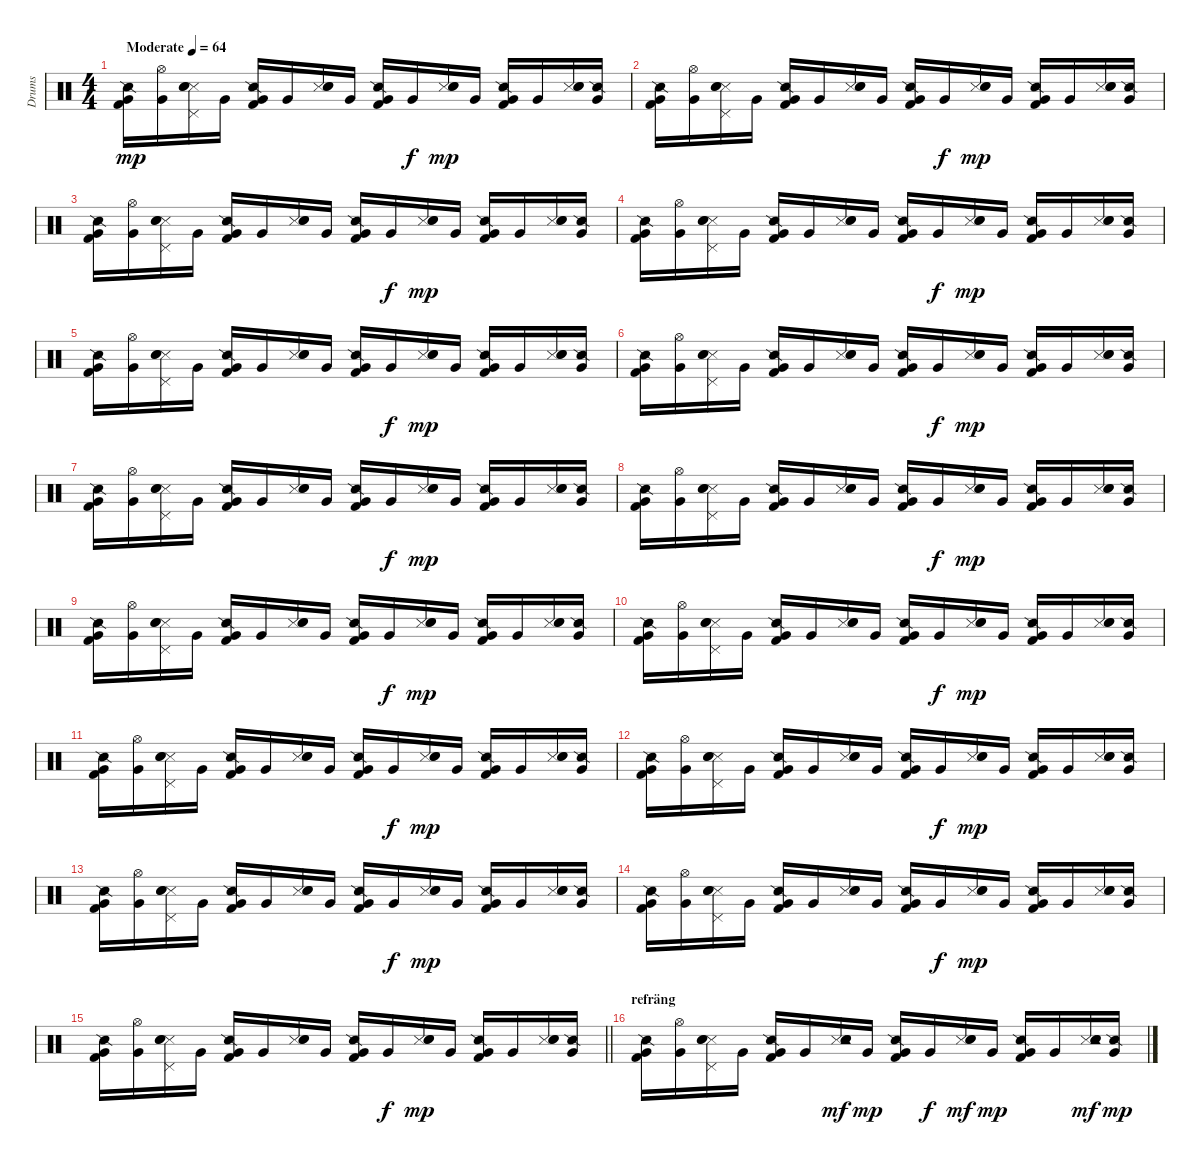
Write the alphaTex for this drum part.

\track ("Drums" "Drums") {instrument percussion}
\staff {score}
\articulation defaults
\ts (4 4)
\tempo (64 "Moderate")
\clef neutral
\ks c
("Snare (side stick) 2" "Very Low Tom (hit)" "Kick (hit) 2").16{dy mp} ("Hi-Hat (open)" "Very Low Tom (hit)").16 ("Metronome (hit)" "Snare (hit) 2" "Hand Clap (hit)" "Pedal Hi-Hat (hit)").16 "Very Low Tom (hit)".16 ("Snare (side stick) 2" "Very Low Tom (hit)" "Kick (hit) 2").16 "Very Low Tom (hit)".16 ("Metronome (hit)" "Hand Clap (hit)" "Snare (hit) 2").16 "Very Low Tom (hit)".16 ("Snare (side stick) 2" "Very Low Tom (hit)" "Kick (hit) 2").16 "Very Low Tom (hit)".16{dy f} ("Metronome (hit)" "Hand Clap (hit)" "Snare (hit) 2").16{dy mp} "Very Low Tom (hit)".16 ("Snare (side stick) 2" "Very Low Tom (hit)" "Kick (hit) 2").16 "Very Low Tom (hit)".16 ("Metronome (hit)" "Hand Clap (hit)" "Snare (hit) 2").16 ("Snare (side stick) 2" "Very Low Tom (hit)").16 |
("Snare (side stick) 2" "Very Low Tom (hit)" "Kick (hit) 2").16 ("Hi-Hat (open)" "Very Low Tom (hit)").16 ("Metronome (hit)" "Snare (hit) 2" "Hand Clap (hit)" "Pedal Hi-Hat (hit)").16 "Very Low Tom (hit)".16 ("Snare (side stick) 2" "Very Low Tom (hit)" "Kick (hit) 2").16 "Very Low Tom (hit)".16 ("Metronome (hit)" "Hand Clap (hit)" "Snare (hit) 2").16 "Very Low Tom (hit)".16 ("Snare (side stick) 2" "Very Low Tom (hit)" "Kick (hit) 2").16 "Very Low Tom (hit)".16{dy f} ("Metronome (hit)" "Hand Clap (hit)" "Snare (hit) 2").16{dy mp} "Very Low Tom (hit)".16 ("Snare (side stick) 2" "Very Low Tom (hit)" "Kick (hit) 2").16 "Very Low Tom (hit)".16 ("Metronome (hit)" "Hand Clap (hit)" "Snare (hit) 2").16 ("Snare (side stick) 2" "Very Low Tom (hit)").16 |
("Snare (side stick) 2" "Very Low Tom (hit)" "Kick (hit) 2").16 ("Hi-Hat (open)" "Very Low Tom (hit)").16 ("Metronome (hit)" "Snare (hit) 2" "Hand Clap (hit)" "Pedal Hi-Hat (hit)").16 "Very Low Tom (hit)".16 ("Snare (side stick) 2" "Very Low Tom (hit)" "Kick (hit) 2").16 "Very Low Tom (hit)".16 ("Metronome (hit)" "Hand Clap (hit)" "Snare (hit) 2").16 "Very Low Tom (hit)".16 ("Snare (side stick) 2" "Very Low Tom (hit)" "Kick (hit) 2").16 "Very Low Tom (hit)".16{dy f} ("Metronome (hit)" "Hand Clap (hit)" "Snare (hit) 2").16{dy mp} "Very Low Tom (hit)".16 ("Snare (side stick) 2" "Very Low Tom (hit)" "Kick (hit) 2").16 "Very Low Tom (hit)".16 ("Metronome (hit)" "Hand Clap (hit)" "Snare (hit) 2").16 ("Snare (side stick) 2" "Very Low Tom (hit)").16 |
("Snare (side stick) 2" "Very Low Tom (hit)" "Kick (hit) 2").16 ("Hi-Hat (open)" "Very Low Tom (hit)").16 ("Metronome (hit)" "Snare (hit) 2" "Hand Clap (hit)" "Pedal Hi-Hat (hit)").16 "Very Low Tom (hit)".16 ("Snare (side stick) 2" "Very Low Tom (hit)" "Kick (hit) 2").16 "Very Low Tom (hit)".16 ("Metronome (hit)" "Hand Clap (hit)" "Snare (hit) 2").16 "Very Low Tom (hit)".16 ("Snare (side stick) 2" "Very Low Tom (hit)" "Kick (hit) 2").16 "Very Low Tom (hit)".16{dy f} ("Metronome (hit)" "Hand Clap (hit)" "Snare (hit) 2").16{dy mp} "Very Low Tom (hit)".16 ("Snare (side stick) 2" "Very Low Tom (hit)" "Kick (hit) 2").16 "Very Low Tom (hit)".16 ("Metronome (hit)" "Hand Clap (hit)" "Snare (hit) 2").16 ("Snare (side stick) 2" "Very Low Tom (hit)").16 |
("Snare (side stick) 2" "Very Low Tom (hit)" "Kick (hit) 2").16 ("Hi-Hat (open)" "Very Low Tom (hit)").16 ("Metronome (hit)" "Snare (hit) 2" "Hand Clap (hit)" "Pedal Hi-Hat (hit)").16 "Very Low Tom (hit)".16 ("Snare (side stick) 2" "Very Low Tom (hit)" "Kick (hit) 2").16 "Very Low Tom (hit)".16 ("Metronome (hit)" "Hand Clap (hit)" "Snare (hit) 2").16 "Very Low Tom (hit)".16 ("Snare (side stick) 2" "Very Low Tom (hit)" "Kick (hit) 2").16 "Very Low Tom (hit)".16{dy f} ("Metronome (hit)" "Hand Clap (hit)" "Snare (hit) 2").16{dy mp} "Very Low Tom (hit)".16 ("Snare (side stick) 2" "Very Low Tom (hit)" "Kick (hit) 2").16 "Very Low Tom (hit)".16 ("Metronome (hit)" "Hand Clap (hit)" "Snare (hit) 2").16 ("Snare (side stick) 2" "Very Low Tom (hit)").16 |
("Snare (side stick) 2" "Very Low Tom (hit)" "Kick (hit) 2").16 ("Hi-Hat (open)" "Very Low Tom (hit)").16 ("Metronome (hit)" "Snare (hit) 2" "Hand Clap (hit)" "Pedal Hi-Hat (hit)").16 "Very Low Tom (hit)".16 ("Snare (side stick) 2" "Very Low Tom (hit)" "Kick (hit) 2").16 "Very Low Tom (hit)".16 ("Metronome (hit)" "Hand Clap (hit)" "Snare (hit) 2").16 "Very Low Tom (hit)".16 ("Snare (side stick) 2" "Very Low Tom (hit)" "Kick (hit) 2").16 "Very Low Tom (hit)".16{dy f} ("Metronome (hit)" "Hand Clap (hit)" "Snare (hit) 2").16{dy mp} "Very Low Tom (hit)".16 ("Snare (side stick) 2" "Very Low Tom (hit)" "Kick (hit) 2").16 "Very Low Tom (hit)".16 ("Metronome (hit)" "Hand Clap (hit)" "Snare (hit) 2").16 ("Snare (side stick) 2" "Very Low Tom (hit)").16 |
("Snare (side stick) 2" "Very Low Tom (hit)" "Kick (hit) 2").16 ("Hi-Hat (open)" "Very Low Tom (hit)").16 ("Metronome (hit)" "Snare (hit) 2" "Hand Clap (hit)" "Pedal Hi-Hat (hit)").16 "Very Low Tom (hit)".16 ("Snare (side stick) 2" "Very Low Tom (hit)" "Kick (hit) 2").16 "Very Low Tom (hit)".16 ("Metronome (hit)" "Hand Clap (hit)" "Snare (hit) 2").16 "Very Low Tom (hit)".16 ("Snare (side stick) 2" "Very Low Tom (hit)" "Kick (hit) 2").16 "Very Low Tom (hit)".16{dy f} ("Metronome (hit)" "Hand Clap (hit)" "Snare (hit) 2").16{dy mp} "Very Low Tom (hit)".16 ("Snare (side stick) 2" "Very Low Tom (hit)" "Kick (hit) 2").16 "Very Low Tom (hit)".16 ("Metronome (hit)" "Hand Clap (hit)" "Snare (hit) 2").16 ("Snare (side stick) 2" "Very Low Tom (hit)").16 |
("Snare (side stick) 2" "Very Low Tom (hit)" "Kick (hit) 2").16 ("Hi-Hat (open)" "Very Low Tom (hit)").16 ("Metronome (hit)" "Snare (hit) 2" "Hand Clap (hit)" "Pedal Hi-Hat (hit)").16 "Very Low Tom (hit)".16 ("Snare (side stick) 2" "Very Low Tom (hit)" "Kick (hit) 2").16 "Very Low Tom (hit)".16 ("Metronome (hit)" "Hand Clap (hit)" "Snare (hit) 2").16 "Very Low Tom (hit)".16 ("Snare (side stick) 2" "Very Low Tom (hit)" "Kick (hit) 2").16 "Very Low Tom (hit)".16{dy f} ("Metronome (hit)" "Hand Clap (hit)" "Snare (hit) 2").16{dy mp} "Very Low Tom (hit)".16 ("Snare (side stick) 2" "Very Low Tom (hit)" "Kick (hit) 2").16 "Very Low Tom (hit)".16 ("Metronome (hit)" "Hand Clap (hit)" "Snare (hit) 2").16 ("Snare (side stick) 2" "Very Low Tom (hit)").16 |
("Snare (side stick) 2" "Very Low Tom (hit)" "Kick (hit) 2").16 ("Hi-Hat (open)" "Very Low Tom (hit)").16 ("Metronome (hit)" "Snare (hit) 2" "Hand Clap (hit)" "Pedal Hi-Hat (hit)").16 "Very Low Tom (hit)".16 ("Snare (side stick) 2" "Very Low Tom (hit)" "Kick (hit) 2").16 "Very Low Tom (hit)".16 ("Metronome (hit)" "Hand Clap (hit)" "Snare (hit) 2").16 "Very Low Tom (hit)".16 ("Snare (side stick) 2" "Very Low Tom (hit)" "Kick (hit) 2").16 "Very Low Tom (hit)".16{dy f} ("Metronome (hit)" "Hand Clap (hit)" "Snare (hit) 2").16{dy mp} "Very Low Tom (hit)".16 ("Snare (side stick) 2" "Very Low Tom (hit)" "Kick (hit) 2").16 "Very Low Tom (hit)".16 ("Metronome (hit)" "Hand Clap (hit)" "Snare (hit) 2").16 ("Snare (side stick) 2" "Very Low Tom (hit)").16 |
("Snare (side stick) 2" "Very Low Tom (hit)" "Kick (hit) 2").16 ("Hi-Hat (open)" "Very Low Tom (hit)").16 ("Metronome (hit)" "Snare (hit) 2" "Hand Clap (hit)" "Pedal Hi-Hat (hit)").16 "Very Low Tom (hit)".16 ("Snare (side stick) 2" "Very Low Tom (hit)" "Kick (hit) 2").16 "Very Low Tom (hit)".16 ("Metronome (hit)" "Hand Clap (hit)" "Snare (hit) 2").16 "Very Low Tom (hit)".16 ("Snare (side stick) 2" "Very Low Tom (hit)" "Kick (hit) 2").16 "Very Low Tom (hit)".16{dy f} ("Metronome (hit)" "Hand Clap (hit)" "Snare (hit) 2").16{dy mp} "Very Low Tom (hit)".16 ("Snare (side stick) 2" "Very Low Tom (hit)" "Kick (hit) 2").16 "Very Low Tom (hit)".16 ("Metronome (hit)" "Hand Clap (hit)" "Snare (hit) 2").16 ("Snare (side stick) 2" "Very Low Tom (hit)").16 |
("Snare (side stick) 2" "Very Low Tom (hit)" "Kick (hit) 2").16 ("Hi-Hat (open)" "Very Low Tom (hit)").16 ("Metronome (hit)" "Snare (hit) 2" "Hand Clap (hit)" "Pedal Hi-Hat (hit)").16 "Very Low Tom (hit)".16 ("Snare (side stick) 2" "Very Low Tom (hit)" "Kick (hit) 2").16 "Very Low Tom (hit)".16 ("Metronome (hit)" "Hand Clap (hit)" "Snare (hit) 2").16 "Very Low Tom (hit)".16 ("Snare (side stick) 2" "Very Low Tom (hit)" "Kick (hit) 2").16 "Very Low Tom (hit)".16{dy f} ("Metronome (hit)" "Hand Clap (hit)" "Snare (hit) 2").16{dy mp} "Very Low Tom (hit)".16 ("Snare (side stick) 2" "Very Low Tom (hit)" "Kick (hit) 2").16 "Very Low Tom (hit)".16 ("Metronome (hit)" "Hand Clap (hit)" "Snare (hit) 2").16 ("Snare (side stick) 2" "Very Low Tom (hit)").16 |
("Snare (side stick) 2" "Very Low Tom (hit)" "Kick (hit) 2").16 ("Hi-Hat (open)" "Very Low Tom (hit)").16 ("Metronome (hit)" "Snare (hit) 2" "Hand Clap (hit)" "Pedal Hi-Hat (hit)").16 "Very Low Tom (hit)".16 ("Snare (side stick) 2" "Very Low Tom (hit)" "Kick (hit) 2").16 "Very Low Tom (hit)".16 ("Metronome (hit)" "Hand Clap (hit)" "Snare (hit) 2").16 "Very Low Tom (hit)".16 ("Snare (side stick) 2" "Very Low Tom (hit)" "Kick (hit) 2").16 "Very Low Tom (hit)".16{dy f} ("Metronome (hit)" "Hand Clap (hit)" "Snare (hit) 2").16{dy mp} "Very Low Tom (hit)".16 ("Snare (side stick) 2" "Very Low Tom (hit)" "Kick (hit) 2").16 "Very Low Tom (hit)".16 ("Metronome (hit)" "Hand Clap (hit)" "Snare (hit) 2").16 ("Snare (side stick) 2" "Very Low Tom (hit)").16 |
("Snare (side stick) 2" "Very Low Tom (hit)" "Kick (hit) 2").16 ("Hi-Hat (open)" "Very Low Tom (hit)").16 ("Metronome (hit)" "Snare (hit) 2" "Hand Clap (hit)" "Pedal Hi-Hat (hit)").16 "Very Low Tom (hit)".16 ("Snare (side stick) 2" "Very Low Tom (hit)" "Kick (hit) 2").16 "Very Low Tom (hit)".16 ("Metronome (hit)" "Hand Clap (hit)" "Snare (hit) 2").16 "Very Low Tom (hit)".16 ("Snare (side stick) 2" "Very Low Tom (hit)" "Kick (hit) 2").16 "Very Low Tom (hit)".16{dy f} ("Metronome (hit)" "Hand Clap (hit)" "Snare (hit) 2").16{dy mp} "Very Low Tom (hit)".16 ("Snare (side stick) 2" "Very Low Tom (hit)" "Kick (hit) 2").16 "Very Low Tom (hit)".16 ("Metronome (hit)" "Hand Clap (hit)" "Snare (hit) 2").16 ("Snare (side stick) 2" "Very Low Tom (hit)").16 |
("Snare (side stick) 2" "Very Low Tom (hit)" "Kick (hit) 2").16 ("Hi-Hat (open)" "Very Low Tom (hit)").16 ("Metronome (hit)" "Snare (hit) 2" "Hand Clap (hit)" "Pedal Hi-Hat (hit)").16 "Very Low Tom (hit)".16 ("Snare (side stick) 2" "Very Low Tom (hit)" "Kick (hit) 2").16 "Very Low Tom (hit)".16 ("Metronome (hit)" "Hand Clap (hit)" "Snare (hit) 2").16 "Very Low Tom (hit)".16 ("Snare (side stick) 2" "Very Low Tom (hit)" "Kick (hit) 2").16 "Very Low Tom (hit)".16{dy f} ("Metronome (hit)" "Hand Clap (hit)" "Snare (hit) 2").16{dy mp} "Very Low Tom (hit)".16 ("Snare (side stick) 2" "Very Low Tom (hit)" "Kick (hit) 2").16 "Very Low Tom (hit)".16 ("Metronome (hit)" "Hand Clap (hit)" "Snare (hit) 2").16 ("Snare (side stick) 2" "Very Low Tom (hit)").16 |
\barLineRight lightlight
("Snare (side stick) 2" "Very Low Tom (hit)" "Kick (hit) 2").16 ("Hi-Hat (open)" "Very Low Tom (hit)").16 ("Metronome (hit)" "Snare (hit) 2" "Hand Clap (hit)" "Pedal Hi-Hat (hit)").16 "Very Low Tom (hit)".16 ("Snare (side stick) 2" "Very Low Tom (hit)" "Kick (hit) 2").16 "Very Low Tom (hit)".16 ("Metronome (hit)" "Hand Clap (hit)" "Snare (hit) 2").16 "Very Low Tom (hit)".16 ("Snare (side stick) 2" "Very Low Tom (hit)" "Kick (hit) 2").16 "Very Low Tom (hit)".16{dy f} ("Metronome (hit)" "Hand Clap (hit)" "Snare (hit) 2").16{dy mp} "Very Low Tom (hit)".16 ("Snare (side stick) 2" "Very Low Tom (hit)" "Kick (hit) 2").16 "Very Low Tom (hit)".16 ("Metronome (hit)" "Hand Clap (hit)" "Snare (hit) 2").16 ("Snare (side stick) 2" "Very Low Tom (hit)").16 |
\section ("" "refräng")
("Snare (side stick) 2" "Very Low Tom (hit)" "Kick (hit) 2").16{volume 10} ("Hi-Hat (open)" "Very Low Tom (hit)").16 ("Metronome (hit)" "Snare (hit) 2" "Hand Clap (hit)" "Pedal Hi-Hat (hit)").16 "Very Low Tom (hit)".16 ("Snare (side stick) 2" "Very Low Tom (hit)" "Kick (hit) 2").16 "Very Low Tom (hit)".16 ("Metronome (hit)" "Hand Clap (hit)" "Snare (hit) 2" "Tambourine (hit)").16{dy mf} "Very Low Tom (hit)".16{dy mp} ("Snare (side stick) 2" "Very Low Tom (hit)" "Kick (hit) 2").16 "Very Low Tom (hit)".16{dy f} ("Metronome (hit)" "Hand Clap (hit)" "Snare (hit) 2").16{dy mf} "Very Low Tom (hit)".16{dy mp} ("Snare (side stick) 2" "Very Low Tom (hit)" "Kick (hit) 2").16 "Very Low Tom (hit)".16 ("Metronome (hit)" "Hand Clap (hit)" "Snare (hit) 2" "Tambourine (hit)").16{dy mf} ("Snare (side stick) 2" "Very Low Tom (hit)").16{dy mp}
